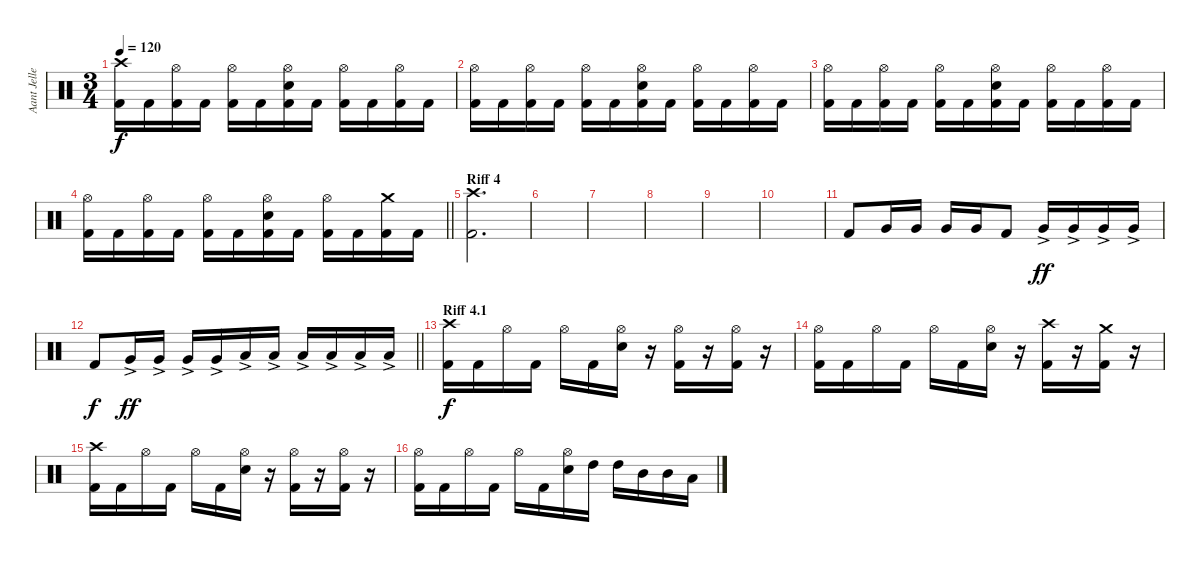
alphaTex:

\track ("Aant Jelle" "Aant Jelle") {instrument percussion}
\staff {score}
\articulation defaults
\ts (3 4)
\tempo 120
\clef neutral
\ks c
("Crash high (hit)" "Kick (hit) 2").16{dy f} "Kick (hit) 2".16 ("Hi-Hat (open)" "Kick (hit) 2").16 "Kick (hit) 2".16 ("Hi-Hat (open)" "Kick (hit) 2").16 "Kick (hit) 2".16 ("Hi-Hat (open)" "Snare (hit) 2" "Kick (hit) 2").16 "Kick (hit) 2".16 ("Hi-Hat (open)" "Kick (hit) 2").16 "Kick (hit) 2".16 ("Hi-Hat (open)" "Kick (hit) 2").16 "Kick (hit) 2".16 |
("Hi-Hat (open)" "Kick (hit) 2").16 "Kick (hit) 2".16 ("Hi-Hat (open)" "Kick (hit) 2").16 "Kick (hit) 2".16 ("Hi-Hat (open)" "Kick (hit) 2").16 "Kick (hit) 2".16 ("Hi-Hat (open)" "Snare (hit) 2" "Kick (hit) 2").16 "Kick (hit) 2".16 ("Hi-Hat (open)" "Kick (hit) 2").16 "Kick (hit) 2".16 ("Hi-Hat (open)" "Kick (hit) 2").16 "Kick (hit) 2".16 |
("Hi-Hat (open)" "Kick (hit) 2").16 "Kick (hit) 2".16 ("Hi-Hat (open)" "Kick (hit) 2").16 "Kick (hit) 2".16 ("Hi-Hat (open)" "Kick (hit) 2").16 "Kick (hit) 2".16 ("Hi-Hat (open)" "Snare (hit) 2" "Kick (hit) 2").16 "Kick (hit) 2".16 ("Hi-Hat (open)" "Kick (hit) 2").16 "Kick (hit) 2".16 ("Hi-Hat (open)" "Kick (hit) 2").16 "Kick (hit) 2".16 |
\barLineRight lightlight
("Hi-Hat (open)" "Kick (hit) 2").16 "Kick (hit) 2".16 ("Hi-Hat (open)" "Kick (hit) 2").16 "Kick (hit) 2".16 ("Hi-Hat (open)" "Kick (hit) 2").16 "Kick (hit) 2".16 ("Hi-Hat (open)" "Snare (hit) 2" "Kick (hit) 2").16 "Kick (hit) 2".16 ("Hi-Hat (open)" "Kick (hit) 2").16 "Kick (hit) 2".16 ("Crash medium (hit)" "Kick (hit) 2").16 "Kick (hit) 2".16 |
\section ("" "Riff 4")
("Crash high (hit)" "Kick (hit) 2").2{d} |
|
|
|
|
|
"Kick (hit) 2".8 "Very Low Tom (hit)".16 "Very Low Tom (hit)".16 "Very Low Tom (hit)".16 "Very Low Tom (hit)".16 "Kick (hit) 2".8 "Very Low Tom (hit)"{ac}.16{dy ff} "Very Low Tom (hit)"{ac}.16 "Very Low Tom (hit)"{ac}.16 "Very Low Tom (hit)"{ac}.16 |
\barLineRight lightlight "Kick (hit) 2".8{dy f} "Very Low Tom (hit)"{ac}.16{dy ff} "Very Low Tom (hit)"{ac}.16 "Very Low Tom (hit)"{ac}.16 "Very Low Tom (hit)"{ac}.16 "Low Floor Tom (hit)"{ac}.16 "Low Floor Tom (hit)"{ac}.16 "Low Floor Tom (hit)"{ac}.16 "Low Floor Tom (hit)"{ac}.16 "Low Floor Tom (hit)"{ac}.16 "Low Floor Tom (hit)"{ac}.16
|
\section ("" "Riff 4.1")
("Crash high (hit)" "Kick (hit) 2").16{dy f} "Kick (hit) 2".16 "Hi-Hat (open)".16 "Kick (hit) 2".16 "Hi-Hat (open)".16 "Kick (hit) 2".16 ("Hi-Hat (open)" "Snare (hit) 2").16 r.16 ("Hi-Hat (open)" "Kick (hit) 2").16 r.16 ("Hi-Hat (open)" "Kick (hit) 2").16 r.16 |
("Hi-Hat (open)" "Kick (hit) 2").16 "Kick (hit) 2".16 "Hi-Hat (open)".16 "Kick (hit) 2".16 "Hi-Hat (open)".16 "Kick (hit) 2".16 ("Hi-Hat (open)" "Snare (hit) 2").16 r.16 ("Crash high (hit)" "Kick (hit) 2").16 r.16 ("Crash medium (hit)" "Kick (hit) 2").16 r.16 |
("Crash high (hit)" "Kick (hit) 2").16 "Kick (hit) 2".16 "Hi-Hat (open)".16 "Kick (hit) 2".16 "Hi-Hat (open)".16 "Kick (hit) 2".16 ("Hi-Hat (open)" "Snare (hit) 2").16 r.16 ("Hi-Hat (open)" "Kick (hit) 2").16 r.16 ("Hi-Hat (open)" "Kick (hit) 2").16 r.16 |
("Hi-Hat (open)" "Kick (hit) 2").16 "Kick (hit) 2".16 "Hi-Hat (open)".16 "Kick (hit) 2".16 "Hi-Hat (open)".16 "Kick (hit) 2".16 ("Hi-Hat (open)" "Snare (hit) 2").16 "High Tom (hit)".16 "High Tom (hit)".16 "Mid Tom (hit)".16 "Mid Tom (hit)".16 "Low Tom (hit)".16
